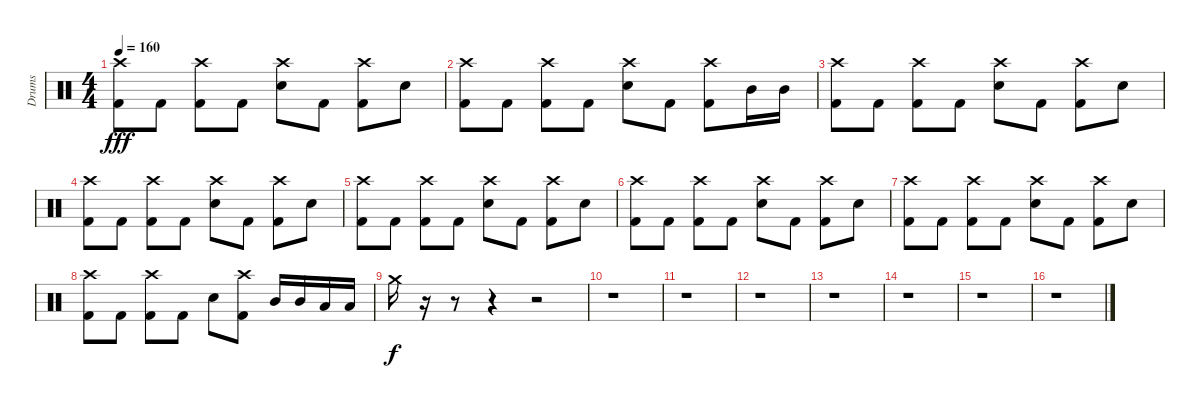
\track ("Drums" "Drums") {instrument percussion}
\staff {score}
\articulation defaults
\ts (4 4)
\tempo 160
\clef neutral
\ks c
("Crash high (hit)" "Kick (hit) 2").8{dy fff} "Kick (hit) 2".8 ("Crash high (hit)" "Kick (hit) 2").8 "Kick (hit) 2".8 ("Crash high (hit)" "Snare (hit) 2").8 "Kick (hit) 2".8 ("Crash high (hit)" "Kick (hit) 2").8 "Snare (hit) 2".8 |
("Crash high (hit)" "Kick (hit) 2").8 "Kick (hit) 2".8 ("Crash high (hit)" "Kick (hit) 2").8 "Kick (hit) 2".8 ("Crash high (hit)" "Snare (hit) 2").8 "Kick (hit) 2".8 ("Crash high (hit)" "Kick (hit) 2").8 "Mid Tom (hit)".16 "Mid Tom (hit)".16 |
("Crash high (hit)" "Kick (hit) 2").8 "Kick (hit) 2".8 ("Crash high (hit)" "Kick (hit) 2").8 "Kick (hit) 2".8 ("Crash high (hit)" "Snare (hit) 2").8 "Kick (hit) 2".8 ("Crash high (hit)" "Kick (hit) 2").8 "Snare (hit) 2".8 |
("Crash high (hit)" "Kick (hit) 2").8 "Kick (hit) 2".8 ("Crash high (hit)" "Kick (hit) 2").8 "Kick (hit) 2".8 ("Crash high (hit)" "Snare (hit) 2").8 "Kick (hit) 2".8 ("Crash high (hit)" "Kick (hit) 2").8 "Snare (hit) 2".8 |
("Crash high (hit)" "Kick (hit) 2").8 "Kick (hit) 2".8 ("Crash high (hit)" "Kick (hit) 2").8 "Kick (hit) 2".8 ("Crash high (hit)" "Snare (hit) 2").8 "Kick (hit) 2".8 ("Crash high (hit)" "Kick (hit) 2").8 "Snare (hit) 2".8 |
("Crash high (hit)" "Kick (hit) 2").8 "Kick (hit) 2".8 ("Crash high (hit)" "Kick (hit) 2").8 "Kick (hit) 2".8 ("Crash high (hit)" "Snare (hit) 2").8 "Kick (hit) 2".8 ("Crash high (hit)" "Kick (hit) 2").8 "Snare (hit) 2".8 |
("Crash high (hit)" "Kick (hit) 2").8 "Kick (hit) 2".8 ("Crash high (hit)" "Kick (hit) 2").8 "Kick (hit) 2".8 ("Crash high (hit)" "Snare (hit) 2").8 "Kick (hit) 2".8 ("Crash high (hit)" "Kick (hit) 2").8 "Snare (hit) 2".8 |
("Crash high (hit)" "Kick (hit) 2").8 "Kick (hit) 2".8 ("Crash high (hit)" "Kick (hit) 2").8 "Kick (hit) 2".8 "Snare (hit) 2".8 ("Crash high (hit)" "Kick (hit) 2").8 "Mid Tom (hit)".16 "Mid Tom (hit)".16 "Low Floor Tom (hit)".16 "Low Floor Tom (hit)".16 |
"Crash medium (hit)".16{dy f} r.16 r.8 r.4 r.2 |
r.1 |
r.1 |
r.1 |
r.1 |
r.1 |
r.1 |
r.1
